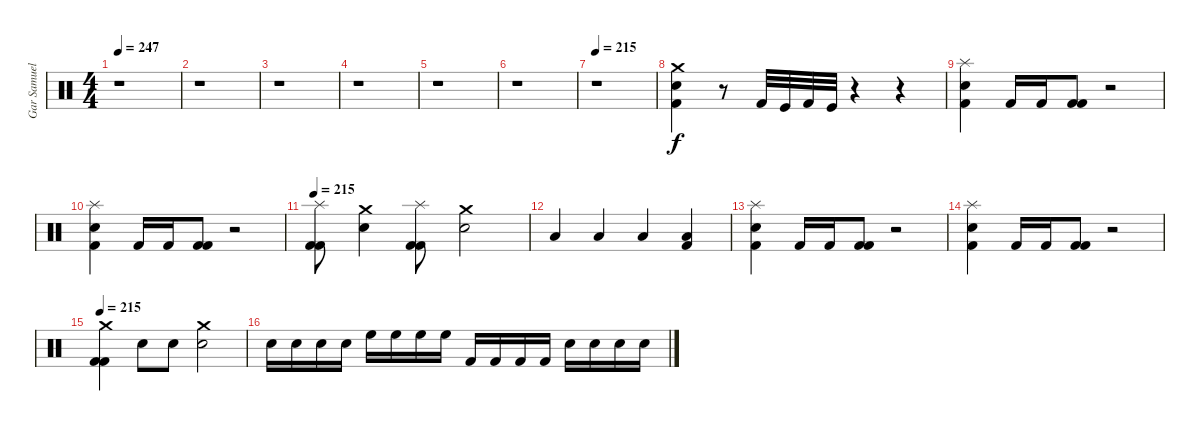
\track ("Gar Samuelson (Drums)" "Gar Samuel") {instrument percussion}
\staff {score}
\articulation defaults
\ts (4 4)
\tempo 247
\tempo 215
\tempo 247
\clef neutral
\ks c
r.1{dy f} |
r.1 |
r.1 |
r.1 |
r.1 |
r.1 |
\tempo 215
r.1 |
("Electric Snare (hit)" "Kick (hit) 2" "Crash medium (hit)").4 r.8 "Kick (hit) 2".32 "Kick (hit)".32 "Kick (hit) 2".32 "Kick (hit)".32 r.4 r.4 |
("Electric Snare (hit)" "Splash (hit)" "Kick (hit) 2").4 "Kick (hit) 2".16 "Kick (hit) 2".16 ("Kick (hit) 2" "Kick (hit) 2").8 r.2 |
("Electric Snare (hit)" "Splash (hit)" "Kick (hit) 2").4 "Kick (hit) 2".16 "Kick (hit) 2".16 ("Kick (hit) 2" "Kick (hit) 2").8 r.2 |
\tempo 215
("Kick (hit) 2" "Splash (hit)" "Kick (hit) 2").8 ("Hand Clap (hit)" "Crash medium (hit)").4 ("Kick (hit) 2" "Splash (hit)" "Kick (hit) 2").8 ("Hand Clap (hit)" "Crash medium (hit)").2 |
"Low Tom (hit)".4 "Low Tom (hit)".4 "Low Tom (hit)".4 ("Low Tom (hit)" "Kick (hit) 2").4 |
("Electric Snare (hit)" "Splash (hit)" "Kick (hit) 2").4 "Kick (hit) 2".16 "Kick (hit) 2".16 ("Kick (hit) 2" "Kick (hit) 2").8 r.2 |
("Electric Snare (hit)" "Splash (hit)" "Kick (hit) 2").4 "Kick (hit) 2".16 "Kick (hit) 2".16 ("Kick (hit) 2" "Kick (hit) 2").8 r.2 |
\tempo 215
("Kick (hit) 2" "Crash medium (hit)" "Kick (hit) 2").4 "Electric Snare (hit)".8 "Electric Snare (hit)".8 ("Electric Snare (hit)" "Crash medium (hit)").2 |
"Snare (hit) 2".16 "Snare (hit) 2".16 "Snare (hit) 2".16 "Snare (hit) 2".16 "High Floor Tom (hit)".16 "High Floor Tom (hit)".16 "High Floor Tom (hit)".16 "High Floor Tom (hit)".16 "Kick (hit) 2".16 "Kick (hit) 2".16 "Kick (hit) 2".16 "Kick (hit) 2".16 "Electric Snare (hit)".16 "Electric Snare (hit)".16 "Electric Snare (hit)".16 "Electric Snare (hit)".16
